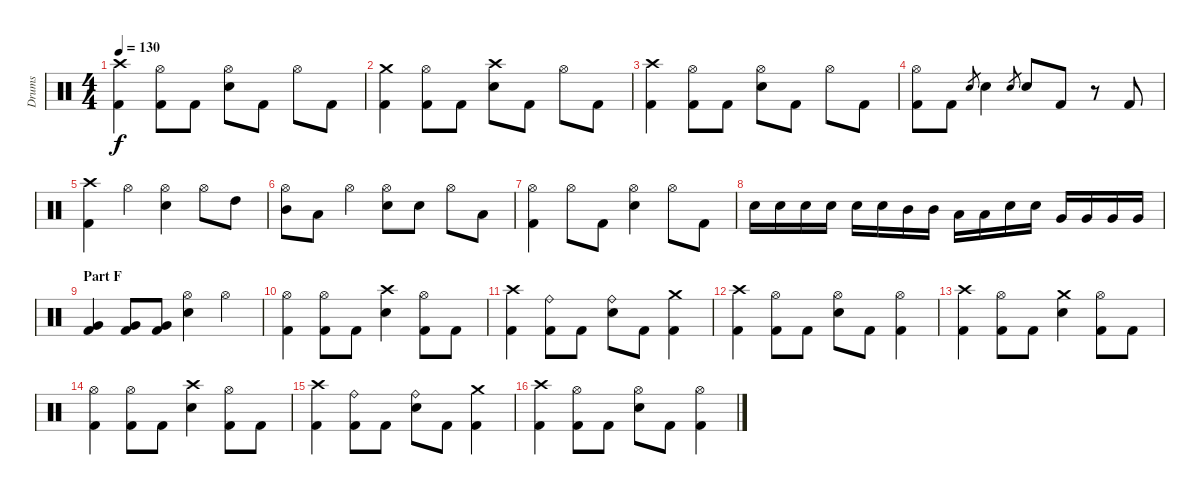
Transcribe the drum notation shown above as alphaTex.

\track ("Drums" "Drums") {instrument percussion}
\staff {score}
\articulation defaults
\ts (4 4)
\tempo 130
\clef neutral
\ks c
("Crash high (hit)" "Kick (hit) 2").4{dy f} ("Hi-Hat (open)" "Kick (hit) 2").8 "Kick (hit) 2".8 ("Hi-Hat (open)" "Electric Snare (hit)").8 "Kick (hit) 2".8 "Hi-Hat (open)".8 "Kick (hit) 2".8 |
("Crash medium (hit)" "Kick (hit) 2").4 ("Hi-Hat (open)" "Kick (hit) 2").8 "Kick (hit) 2".8 ("Crash high (hit)" "Electric Snare (hit)").8 "Kick (hit) 2".8 "Hi-Hat (open)".8 "Kick (hit) 2".8 |
("Crash high (hit)" "Kick (hit) 2").4 ("Hi-Hat (open)" "Kick (hit) 2").8 "Kick (hit) 2".8 ("Hi-Hat (open)" "Electric Snare (hit)").8 "Kick (hit) 2".8 "Hi-Hat (open)".8 "Kick (hit) 2".8 |
("Hi-Hat (open)" "Kick (hit) 2").8 "Kick (hit) 2".8 "Electric Snare (hit)".8{gr} "Electric Snare (hit)".4 "Electric Snare (hit)".8{gr} "Electric Snare (hit)".8 "Kick (hit) 2".8 r.8 "Kick (hit) 2".8 |
("Crash high (hit)" "Kick (hit) 2").4 "Hi-Hat (open)".4 ("Hi-Hat (open)" "Electric Snare (hit)").4 "Hi-Hat (open)".8 "High Tom (hit)".8 |
("Hi-Hat (open)" "Mid Tom (hit)").8 "Low Tom (hit)".8 "Hi-Hat (open)".4 ("Hi-Hat (open)" "Electric Snare (hit)").8 "Electric Snare (hit)".8 "Hi-Hat (open)".8 "Low Tom (hit)".8 |
("Hi-Hat (open)" "Kick (hit) 2").4 "Hi-Hat (open)".8 "Kick (hit) 2".8 ("Hi-Hat (open)" "Electric Snare (hit)").4 "Hi-Hat (open)".8 "Kick (hit) 2".8 |
"Electric Snare (hit)".16 "Electric Snare (hit)".16 "Electric Snare (hit)".16 "Electric Snare (hit)".16 "Electric Snare (hit)".16 "Electric Snare (hit)".16 "Mid Tom (hit)".16 "Mid Tom (hit)".16 "Low Tom (hit)".16 "Low Tom (hit)".16 "Electric Snare (hit)".16 "Electric Snare (hit)".16 "Very Low Tom (hit)".16 "Very Low Tom (hit)".16 "Very Low Tom (hit)".16 "Very Low Tom (hit)".16 |
\section ("" "Part F")
("Very Low Tom (hit)" "Kick (hit) 2").4 ("Very Low Tom (hit)" "Kick (hit) 2").8 ("Very Low Tom (hit)" "Kick (hit) 2").8 ("Hi-Hat (open)" "Electric Snare (hit)").4 "Hi-Hat (open)".4 |
("Hi-Hat (open)" "Kick (hit) 2").4 ("Hi-Hat (open)" "Kick (hit) 2").8 "Kick (hit) 2".8 ("Crash high (hit)" "Electric Snare (hit)").4 ("Hi-Hat (open)" "Kick (hit) 2").8 "Kick (hit) 2".8 |
("Crash high (hit)" "Kick (hit) 2").4 ("Ride (bell)" "Kick (hit) 2").8 "Kick (hit) 2".8 ("Ride (bell)" "Electric Snare (hit)").8 "Kick (hit) 2".8 ("Crash medium (hit)" "Kick (hit) 2").4 |
("Crash high (hit)" "Kick (hit) 2").4 ("Hi-Hat (open)" "Kick (hit) 2").8 "Kick (hit) 2".8 ("Hi-Hat (open)" "Electric Snare (hit)").8 "Kick (hit) 2".8 ("Hi-Hat (open)" "Kick (hit) 2").4 |
("Crash high (hit)" "Kick (hit) 2").4 ("Hi-Hat (open)" "Kick (hit) 2").8 "Kick (hit) 2".8 ("Crash medium (hit)" "Electric Snare (hit)").4 ("Hi-Hat (open)" "Kick (hit) 2").8 "Kick (hit) 2".8 |
("Hi-Hat (open)" "Kick (hit) 2").4 ("Hi-Hat (open)" "Kick (hit) 2").8 "Kick (hit) 2".8 ("Crash high (hit)" "Electric Snare (hit)").4 ("Hi-Hat (open)" "Kick (hit) 2").8 "Kick (hit) 2".8 |
("Crash high (hit)" "Kick (hit) 2").4 ("Ride (bell)" "Kick (hit) 2").8 "Kick (hit) 2".8 ("Ride (bell)" "Electric Snare (hit)").8 "Kick (hit) 2".8 ("Crash medium (hit)" "Kick (hit) 2").4 |
("Crash high (hit)" "Kick (hit) 2").4 ("Hi-Hat (open)" "Kick (hit) 2").8 "Kick (hit) 2".8 ("Hi-Hat (open)" "Electric Snare (hit)").8 "Kick (hit) 2".8 ("Hi-Hat (open)" "Kick (hit) 2").4
